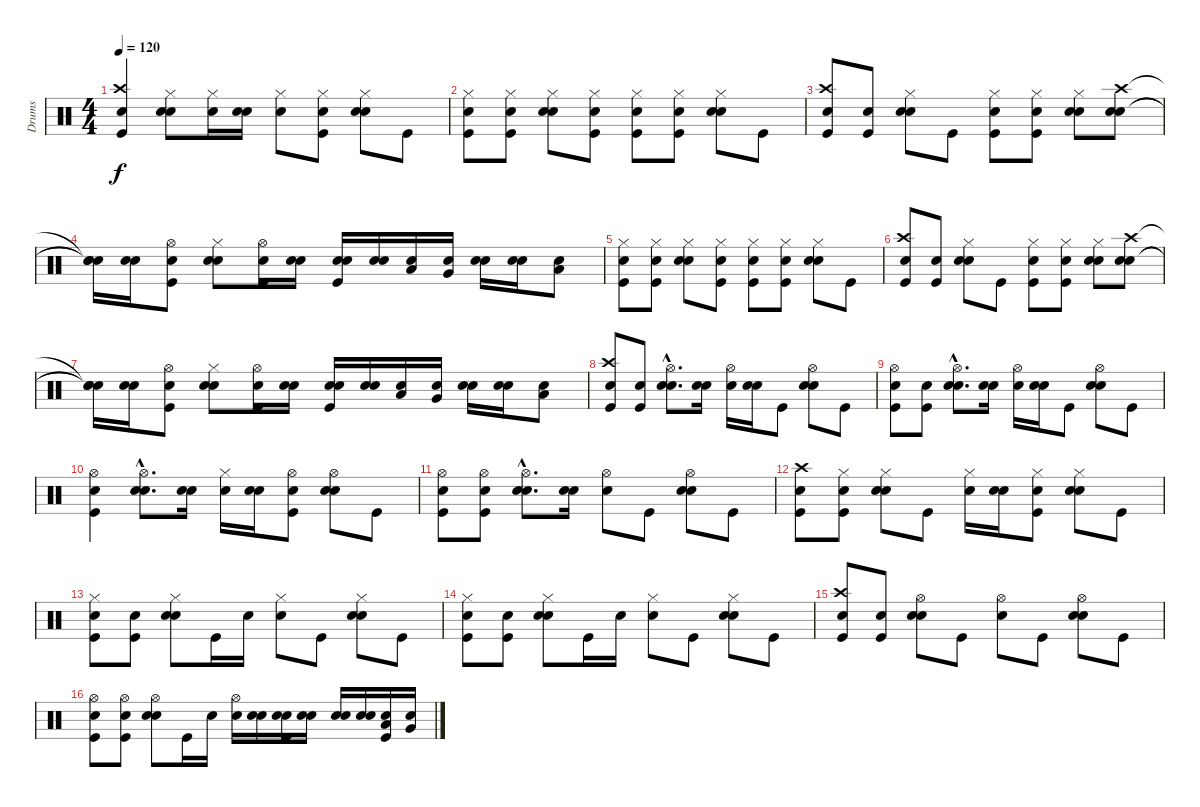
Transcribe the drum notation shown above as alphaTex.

\track ("Drums" "Drums") {instrument percussion}
\staff {score}
\articulation defaults
\ts (4 4)
\tempo 120
\clef neutral
\ks c
("Snare (hit)" "Crash high (hit)" "Kick (hit)").4{dy f} ("Snare (hit)" "Electric Snare (hit)" "Hi-Hat (closed)").8 ("Snare (hit)" "Hi-Hat (closed)").16 ("Snare (hit)" "Electric Snare (hit)").16 ("Snare (hit)" "Hi-Hat (closed)").8 ("Snare (hit)" "Hi-Hat (closed)" "Kick (hit)").8 ("Snare (hit)" "Electric Snare (hit)" "Hi-Hat (closed)").8 "Kick (hit)".8 |
("Snare (hit)" "Hi-Hat (closed)" "Kick (hit)").8 ("Snare (hit)" "Hi-Hat (closed)" "Kick (hit)").8 ("Snare (hit)" "Electric Snare (hit)" "Hi-Hat (closed)").8 ("Snare (hit)" "Hi-Hat (closed)" "Kick (hit)").8 ("Snare (hit)" "Hi-Hat (closed)" "Kick (hit)").8 ("Snare (hit)" "Hi-Hat (closed)" "Kick (hit)").8 ("Snare (hit)" "Electric Snare (hit)" "Hi-Hat (closed)").8 "Kick (hit)".8 |
("Snare (hit)" "Crash high (hit)" "Kick (hit)").8 ("Snare (hit)" "Kick (hit)").8 ("Snare (hit)" "Electric Snare (hit)" "Hi-Hat (closed)").8 "Kick (hit)".8 ("Snare (hit)" "Hi-Hat (closed)" "Kick (hit)").8 ("Snare (hit)" "Hi-Hat (closed)" "Kick (hit)").8 ("Snare (hit)" "Electric Snare (hit)" "Hi-Hat (closed)").8 ("Snare (hit)" "Electric Snare (hit)" "Crash high (hit)").8 |
("Snare (hit)"{t} "Snare (hit)"{t} "Snare (hit)"{t}).16 ("Snare (hit)" "Electric Snare (hit)").16 ("Snare (hit)" "Hi-Hat (open)" "Kick (hit)").8 ("Snare (hit)" "Electric Snare (hit)" "Hi-Hat (closed)").8 ("Snare (hit)" "Hi-Hat (open)" "Kick (hit)").16 ("Snare (hit)" "Electric Snare (hit)").16 ("Snare (hit)" "Electric Snare (hit)" "Kick (hit)").16 ("Snare (hit)" "Electric Snare (hit)").16 ("Snare (hit)" "Low Tom (hit)").16 ("Snare (hit)" "Very Low Tom (hit)").16 ("Snare (hit)" "Electric Snare (hit)").16 ("Snare (hit)" "Electric Snare (hit)").16 ("Snare (hit)" "Low Tom (hit)").8 |
("Snare (hit)" "Hi-Hat (closed)" "Kick (hit)").8 ("Snare (hit)" "Hi-Hat (closed)" "Kick (hit)").8 ("Snare (hit)" "Electric Snare (hit)" "Hi-Hat (closed)").8 ("Snare (hit)" "Hi-Hat (closed)" "Kick (hit)").8 ("Snare (hit)" "Hi-Hat (closed)" "Kick (hit)").8 ("Snare (hit)" "Hi-Hat (closed)" "Kick (hit)").8 ("Snare (hit)" "Electric Snare (hit)" "Hi-Hat (closed)").8 "Kick (hit)".8 |
("Snare (hit)" "Crash high (hit)" "Kick (hit)").8 ("Snare (hit)" "Kick (hit)").8 ("Snare (hit)" "Electric Snare (hit)" "Hi-Hat (closed)").8 "Kick (hit)".8 ("Snare (hit)" "Hi-Hat (closed)" "Kick (hit)").8 ("Snare (hit)" "Hi-Hat (closed)" "Kick (hit)").8 ("Snare (hit)" "Electric Snare (hit)" "Hi-Hat (closed)").8 ("Snare (hit)" "Electric Snare (hit)" "Crash high (hit)").8 |
("Snare (hit)"{t} "Snare (hit)"{t} "Snare (hit)"{t}).16 ("Snare (hit)" "Electric Snare (hit)").16 ("Snare (hit)" "Hi-Hat (open)" "Kick (hit)").8 ("Snare (hit)" "Electric Snare (hit)" "Hi-Hat (closed)").8 ("Snare (hit)" "Hi-Hat (open)" "Kick (hit)").16 ("Snare (hit)" "Electric Snare (hit)").16 ("Snare (hit)" "Electric Snare (hit)" "Kick (hit)").16 ("Snare (hit)" "Electric Snare (hit)").16 ("Snare (hit)" "Low Tom (hit)").16 ("Snare (hit)" "Very Low Tom (hit)").16 ("Snare (hit)" "Electric Snare (hit)").16 ("Snare (hit)" "Electric Snare (hit)").16 ("Snare (hit)" "Low Tom (hit)").8 |
("Snare (hit)" "Kick (hit)" "Crash high (hit)").8 ("Snare (hit)" "Kick (hit)").8 ("Snare (hit)"{hac} "Electric Snare (hit)"{hac} "Hi-Hat (open)"{hac}).8{d} ("Snare (hit)" "Electric Snare (hit)").16 ("Snare (hit)" "Hi-Hat (open)").16 ("Snare (hit)" "Electric Snare (hit)").16 "Kick (hit)".8 ("Snare (hit)" "Electric Snare (hit)" "Hi-Hat (open)").8 "Kick (hit)".8 |
("Snare (hit)" "Hi-Hat (open)" "Kick (hit)").8 ("Snare (hit)" "Kick (hit)").8 ("Snare (hit)"{hac} "Electric Snare (hit)"{hac} "Hi-Hat (open)"{hac}).8{d} ("Snare (hit)" "Electric Snare (hit)").16 ("Snare (hit)" "Hi-Hat (open)").16 ("Snare (hit)" "Electric Snare (hit)").16 "Kick (hit)".8 ("Snare (hit)" "Electric Snare (hit)" "Hi-Hat (open)").8 "Kick (hit)".8 |
("Snare (hit)" "Hi-Hat (open)" "Kick (hit)").4 ("Snare (hit)"{hac} "Electric Snare (hit)"{hac} "Hi-Hat (open)"{hac}).8{d} ("Snare (hit)" "Electric Snare (hit)").16 ("Snare (hit)" "Hi-Hat (closed)").16 ("Snare (hit)" "Electric Snare (hit)").16 ("Snare (hit)" "Hi-Hat (open)" "Kick (hit)").8 ("Snare (hit)" "Electric Snare (hit)" "Hi-Hat (open)").8 "Kick (hit)".8 |
("Snare (hit)" "Hi-Hat (open)" "Kick (hit)").8 ("Snare (hit)" "Hi-Hat (open)" "Kick (hit)").8 ("Snare (hit)"{hac} "Electric Snare (hit)"{hac} "Hi-Hat (open)"{hac}).8{d} ("Snare (hit)" "Electric Snare (hit)").16 ("Snare (hit)" "Hi-Hat (open)").8 "Kick (hit)".8 ("Snare (hit)" "Electric Snare (hit)" "Hi-Hat (open)").8 "Kick (hit)".8 |
("Snare (hit)" "Crash high (hit)" "Kick (hit)").8 ("Snare (hit)" "Hi-Hat (closed)" "Kick (hit)").8 ("Snare (hit)" "Electric Snare (hit)" "Hi-Hat (closed)").8 "Kick (hit)".8 ("Snare (hit)" "Hi-Hat (closed)").16 ("Snare (hit)" "Electric Snare (hit)").16 ("Snare (hit)" "Hi-Hat (closed)" "Kick (hit)").8 ("Snare (hit)" "Electric Snare (hit)" "Hi-Hat (closed)").8 "Kick (hit)".8 |
("Snare (hit)" "Hi-Hat (closed)" "Kick (hit)").8 ("Snare (hit)" "Kick (hit)").8 ("Snare (hit)" "Electric Snare (hit)" "Hi-Hat (closed)").8 "Kick (hit)".16 "Electric Snare (hit)".16 ("Snare (hit)" "Hi-Hat (closed)").8 "Kick (hit)".8 ("Snare (hit)" "Electric Snare (hit)" "Hi-Hat (closed)").8 "Kick (hit)".8 |
("Snare (hit)" "Hi-Hat (closed)" "Kick (hit)").8 ("Snare (hit)" "Kick (hit)").8 ("Snare (hit)" "Electric Snare (hit)" "Hi-Hat (closed)").8 "Kick (hit)".16 "Electric Snare (hit)".16 ("Snare (hit)" "Hi-Hat (closed)").8 "Kick (hit)".8 ("Snare (hit)" "Electric Snare (hit)" "Hi-Hat (closed)").8 "Kick (hit)".8 |
("Snare (hit)" "Crash high (hit)" "Kick (hit)").8 ("Snare (hit)" "Kick (hit)").8 ("Snare (hit)" "Electric Snare (hit)" "Hi-Hat (open)").8 "Kick (hit)".8 ("Snare (hit)" "Hi-Hat (open)").8 "Kick (hit)".8 ("Snare (hit)" "Electric Snare (hit)" "Hi-Hat (open)").8 "Kick (hit)".8 |
("Snare (hit)" "Hi-Hat (open)" "Kick (hit)").8 ("Snare (hit)" "Hi-Hat (open)" "Kick (hit)").8 ("Snare (hit)" "Electric Snare (hit)" "Hi-Hat (open)").8 "Kick (hit)".16 "Electric Snare (hit)".16 ("Snare (hit)" "Hi-Hat (open)").16 ("Snare (hit)" "Electric Snare (hit)").16 ("Snare (hit)" "Electric Snare (hit)" "Kick (hit)").16 ("Snare (hit)" "Electric Snare (hit)").16 ("Snare (hit)" "Electric Snare (hit)").16 ("Snare (hit)" "Electric Snare (hit)").16 ("Snare (hit)" "Low Tom (hit)" "Kick (hit)").16 ("Snare (hit)" "Very Low Tom (hit)").16
